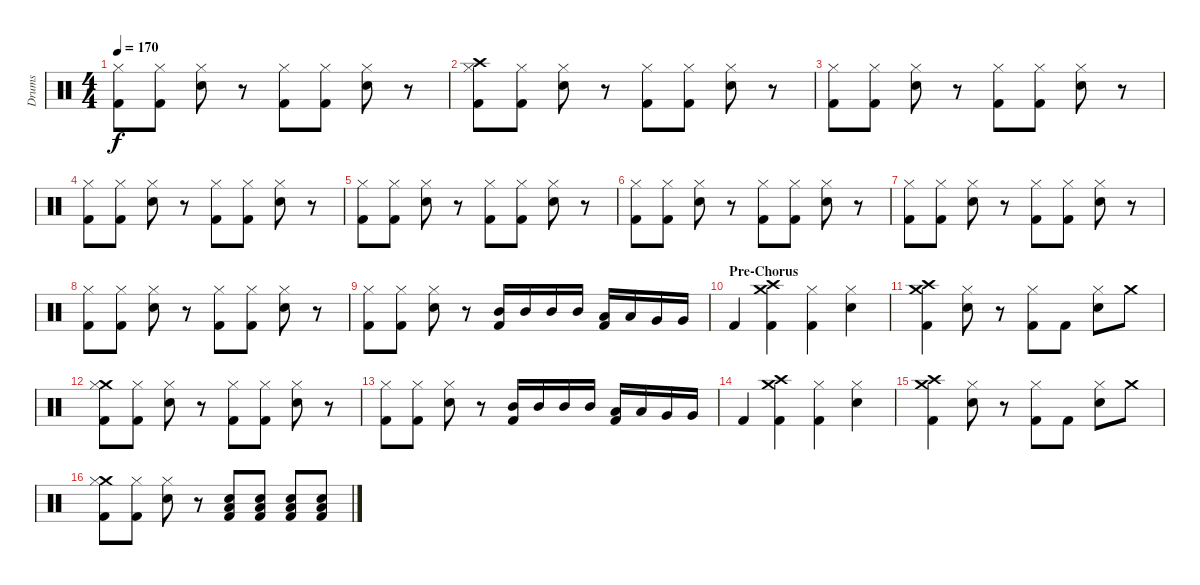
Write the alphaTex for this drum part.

\track ("Drums" "Drums") {instrument percussion}
\staff {score}
\articulation defaults
\ts (4 4)
\tempo 170
\clef neutral
\ks c
("Hi-Hat (closed)" "Kick (hit) 2").8{dy f} ("Hi-Hat (closed)" "Kick (hit) 2").8 ("Hi-Hat (closed)" "Snare (hit) 2").8 r.8 ("Hi-Hat (closed)" "Kick (hit) 2").8 ("Hi-Hat (closed)" "Kick (hit) 2").8 ("Hi-Hat (closed)" "Snare (hit) 2").8 r.8 |
("Crash high (hit)" "Hi-Hat (closed)" "Kick (hit) 2").8 ("Hi-Hat (closed)" "Kick (hit) 2").8 ("Hi-Hat (closed)" "Snare (hit) 2").8 r.8 ("Hi-Hat (closed)" "Kick (hit) 2").8 ("Hi-Hat (closed)" "Kick (hit) 2").8 ("Hi-Hat (closed)" "Snare (hit) 2").8 r.8 |
("Hi-Hat (closed)" "Kick (hit) 2").8 ("Hi-Hat (closed)" "Kick (hit) 2").8 ("Hi-Hat (closed)" "Snare (hit) 2").8 r.8 ("Hi-Hat (closed)" "Kick (hit) 2").8 ("Hi-Hat (closed)" "Kick (hit) 2").8 ("Hi-Hat (closed)" "Snare (hit) 2").8 r.8 |
("Hi-Hat (closed)" "Kick (hit) 2").8 ("Hi-Hat (closed)" "Kick (hit) 2").8 ("Hi-Hat (closed)" "Snare (hit) 2").8 r.8 ("Hi-Hat (closed)" "Kick (hit) 2").8 ("Hi-Hat (closed)" "Kick (hit) 2").8 ("Hi-Hat (closed)" "Snare (hit) 2").8 r.8 |
("Hi-Hat (closed)" "Kick (hit) 2").8 ("Hi-Hat (closed)" "Kick (hit) 2").8 ("Hi-Hat (closed)" "Snare (hit) 2").8 r.8 ("Hi-Hat (closed)" "Kick (hit) 2").8 ("Hi-Hat (closed)" "Kick (hit) 2").8 ("Hi-Hat (closed)" "Snare (hit) 2").8 r.8 |
("Hi-Hat (closed)" "Kick (hit) 2").8 ("Hi-Hat (closed)" "Kick (hit) 2").8 ("Hi-Hat (closed)" "Snare (hit) 2").8 r.8 ("Hi-Hat (closed)" "Kick (hit) 2").8 ("Hi-Hat (closed)" "Kick (hit) 2").8 ("Hi-Hat (closed)" "Snare (hit) 2").8 r.8 |
("Hi-Hat (closed)" "Kick (hit) 2").8 ("Hi-Hat (closed)" "Kick (hit) 2").8 ("Hi-Hat (closed)" "Snare (hit) 2").8 r.8 ("Hi-Hat (closed)" "Kick (hit) 2").8 ("Hi-Hat (closed)" "Kick (hit) 2").8 ("Hi-Hat (closed)" "Snare (hit) 2").8 r.8 |
("Hi-Hat (closed)" "Kick (hit) 2").8 ("Hi-Hat (closed)" "Kick (hit) 2").8 ("Hi-Hat (closed)" "Snare (hit) 2").8 r.8 ("Hi-Hat (closed)" "Kick (hit) 2").8 ("Hi-Hat (closed)" "Kick (hit) 2").8 ("Hi-Hat (closed)" "Snare (hit) 2").8 r.8 |
("Hi-Hat (closed)" "Kick (hit) 2").8 ("Hi-Hat (closed)" "Kick (hit) 2").8 ("Hi-Hat (closed)" "Snare (hit) 2").8 r.8 ("Mid Tom (hit)" "Kick (hit) 2").16 "Mid Tom (hit)".16 "Mid Tom (hit)".16 "Mid Tom (hit)".16 ("Low Tom (hit)" "Kick (hit) 2").16 "Low Tom (hit)".16 "Very Low Tom (hit)".16 "Very Low Tom (hit)".16 |
\section ("" "Pre-Chorus")
"Kick (hit) 2".4 ("Crash medium (hit)" "Crash high (hit)" "Kick (hit) 2").4 ("Hi-Hat (closed)" "Kick (hit) 2").4 ("Hi-Hat (closed)" "Snare (hit) 2").4 |
("Crash medium (hit)" "Crash high (hit)" "Kick (hit) 2").4 ("Hi-Hat (closed)" "Snare (hit) 2").8 r.8 ("Hi-Hat (closed)" "Kick (hit) 2").8 "Kick (hit) 2".8 ("Hi-Hat (closed)" "Snare (hit) 2").8 "Crash medium (hit)".8 |
("Crash medium (hit)" "Hi-Hat (closed)" "Kick (hit) 2").8 ("Hi-Hat (closed)" "Kick (hit) 2").8 ("Hi-Hat (closed)" "Snare (hit) 2").8 r.8 ("Hi-Hat (closed)" "Kick (hit) 2").8 ("Hi-Hat (closed)" "Kick (hit) 2").8 ("Hi-Hat (closed)" "Snare (hit) 2").8 r.8 |
("Hi-Hat (closed)" "Kick (hit) 2").8 ("Hi-Hat (closed)" "Kick (hit) 2").8 ("Hi-Hat (closed)" "Snare (hit) 2").8 r.8 ("Mid Tom (hit)" "Kick (hit) 2").16 "Mid Tom (hit)".16 "Mid Tom (hit)".16 "Mid Tom (hit)".16 ("Low Tom (hit)" "Kick (hit) 2").16 "Low Tom (hit)".16 "Very Low Tom (hit)".16 "Very Low Tom (hit)".16 |
"Kick (hit) 2".4 ("Crash medium (hit)" "Crash high (hit)" "Kick (hit) 2").4 ("Hi-Hat (closed)" "Kick (hit) 2").4 ("Hi-Hat (closed)" "Snare (hit) 2").4 |
("Crash medium (hit)" "Crash high (hit)" "Kick (hit) 2").4 ("Hi-Hat (closed)" "Snare (hit) 2").8 r.8 ("Hi-Hat (closed)" "Kick (hit) 2").8 "Kick (hit) 2".8 ("Hi-Hat (closed)" "Snare (hit) 2").8 "Crash medium (hit)".8 |
("Crash medium (hit)" "Hi-Hat (closed)" "Kick (hit) 2").8 ("Hi-Hat (closed)" "Kick (hit) 2").8 ("Hi-Hat (closed)" "Snare (hit) 2").8 r.8 ("Low Tom (hit)" "Snare (hit) 2" "Kick (hit) 2").8 ("Low Tom (hit)" "Snare (hit) 2" "Kick (hit) 2").8 ("Low Tom (hit)" "Snare (hit) 2" "Kick (hit) 2").8 ("Low Tom (hit)" "Snare (hit) 2" "Kick (hit) 2").8
